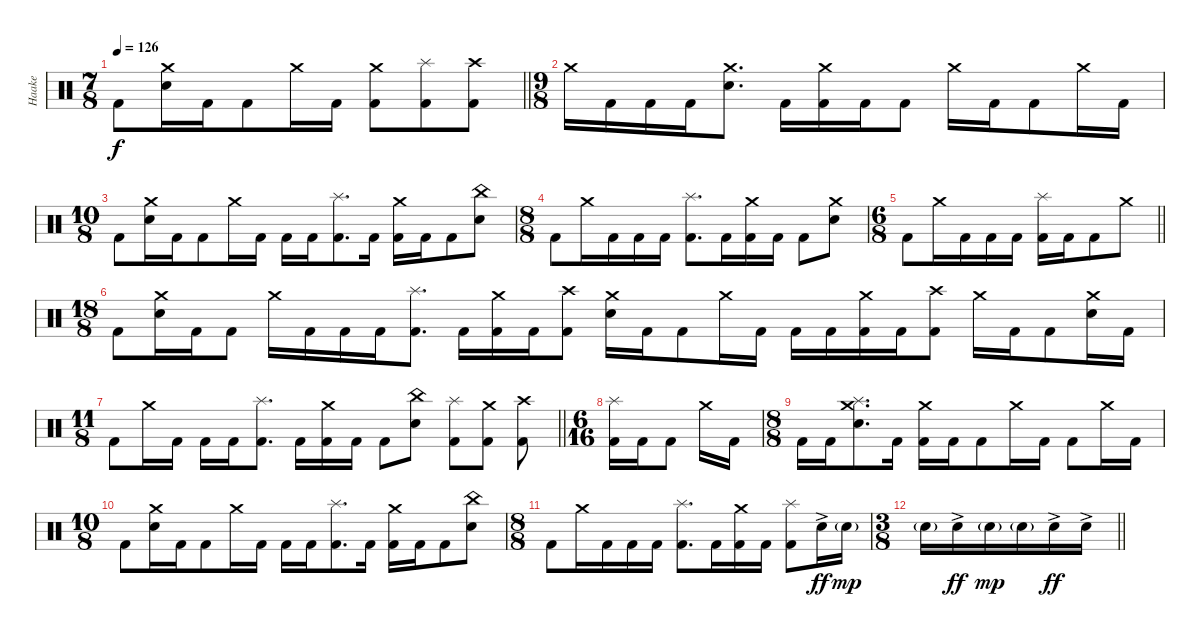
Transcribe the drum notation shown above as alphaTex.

\track ("Haake" "Haake") {instrument percussion}
\staff {score}
\articulation defaults
\ts (7 8)
\tempo 126
\clef neutral
\barLineRight lightlight
\ks c "Kick (hit) 2".8{dy f}
("Crash medium (hit)" "Electric Snare (hit)").16 "Kick (hit) 2".16 "Kick (hit) 2".8 "Crash medium (hit)".16 "Kick (hit) 2".16 ("Crash medium (hit)" "Kick (hit) 2").8 ("Splash (hit)" "Kick (hit) 2").8 ("Crash high (hit)" "Kick (hit) 2").8 |
\ts (9 8)
"Crash medium (hit)".16 "Kick (hit) 2".16 "Kick (hit) 2".16 "Kick (hit) 2".16 ("Crash medium (hit)" "Electric Snare (hit)").8{d} "Kick (hit) 2".16 ("Crash medium (hit)" "Kick (hit) 2").16 "Kick (hit) 2".16 "Kick (hit) 2".8 "Crash medium (hit)".16 "Kick (hit) 2".16 "Kick (hit) 2".8 "Crash medium (hit)".16 "Kick (hit) 2".16 |
\ts (10 8)
"Kick (hit) 2".8 ("Crash medium (hit)" "Electric Snare (hit)").16 "Kick (hit) 2".16 "Kick (hit) 2".8 "Crash medium (hit)".16 "Kick (hit) 2".16 "Kick (hit) 2".16 "Kick (hit) 2".16 ("Splash (hit)" "Kick (hit) 2").8{d} "Kick (hit) 2".16 ("Crash medium (hit)" "Kick (hit) 2").16 "Kick (hit) 2".16 "Kick (hit) 2".8 ("China (hit)" "Electric Snare (hit)").8 |
\ts (8 8)
"Kick (hit) 2".8 "Crash medium (hit)".16 "Kick (hit) 2".16 "Kick (hit) 2".16 "Kick (hit) 2".16 ("Splash (hit)" "Kick (hit) 2").8{d} "Kick (hit) 2".16 ("Crash medium (hit)" "Kick (hit) 2").16 "Kick (hit) 2".16 "Kick (hit) 2".8 ("Crash medium (hit)" "Electric Snare (hit)").8 |
\ts (6 8)
\barLineRight lightlight "Kick (hit) 2".8 "Crash medium (hit)".16 "Kick (hit) 2".16 "Kick (hit) 2".16 "Kick (hit) 2".16
("Splash (hit)" "Kick (hit) 2").16 "Kick (hit) 2".16 "Kick (hit) 2".8 "Crash medium (hit)".8 |
\ts (18 8)
"Kick (hit) 2".8 ("Crash medium (hit)" "Electric Snare (hit)").16 "Kick (hit) 2".16 "Kick (hit) 2".8 "Crash medium (hit)".16 "Kick (hit) 2".16 "Kick (hit) 2".16 "Kick (hit) 2".16 ("Splash (hit)" "Kick (hit) 2").8{d} "Kick (hit) 2".16 ("Crash medium (hit)" "Kick (hit) 2").16 "Kick (hit) 2".16 ("Crash high (hit)" "Kick (hit) 2").8 ("Crash medium (hit)" "Electric Snare (hit)").16 "Kick (hit) 2".16 "Kick (hit) 2".8 "Crash medium (hit)".16 "Kick (hit) 2".16 "Kick (hit) 2".16 "Kick (hit) 2".16 ("Crash medium (hit)" "Kick (hit) 2").16 "Kick (hit) 2".16 ("Crash high (hit)" "Kick (hit) 2").8 "Crash medium (hit)".16 "Kick (hit) 2".16 "Kick (hit) 2".8 ("Crash medium (hit)" "Electric Snare (hit)").16 "Kick (hit) 2".16 |
\ts (11 8)
\barLineRight lightlight "Kick (hit) 2".8 "Crash medium (hit)".16 "Kick (hit) 2".16 "Kick (hit) 2".16 "Kick (hit) 2".16
("Splash (hit)" "Kick (hit) 2").8{d} "Kick (hit) 2".16 ("Crash medium (hit)" "Kick (hit) 2").16 "Kick (hit) 2".16 "Kick (hit) 2".8 ("China (hit)" "Electric Snare (hit)").8 ("Splash (hit)" "Kick (hit) 2").8 ("Crash medium (hit)" "Kick (hit) 2").8 ("Crash high (hit)" "Kick (hit) 2").8 |
\ts (6 16)
("Splash (hit)" "Kick (hit) 2").16 "Kick (hit) 2".16 "Kick (hit) 2".8 "Crash medium (hit)".16 "Kick (hit) 2".16 |
\ts (8 8)
"Kick (hit) 2".16 "Kick (hit) 2".16 ("Crash medium (hit)" "Electric Snare (hit)" "Splash (hit)").8{d} "Kick (hit) 2".16 ("Crash medium (hit)" "Kick (hit) 2").16 "Kick (hit) 2".16 "Kick (hit) 2".8 "Crash medium (hit)".16 "Kick (hit) 2".16 "Kick (hit) 2".8 "Crash medium (hit)".16 "Kick (hit) 2".16 |
\ts (10 8)
"Kick (hit) 2".8 ("Crash medium (hit)" "Electric Snare (hit)").16 "Kick (hit) 2".16 "Kick (hit) 2".8 "Crash medium (hit)".16 "Kick (hit) 2".16 "Kick (hit) 2".16 "Kick (hit) 2".16 ("Splash (hit)" "Kick (hit) 2").8{d} "Kick (hit) 2".16 ("Crash medium (hit)" "Kick (hit) 2").16 "Kick (hit) 2".16 "Kick (hit) 2".8 ("China (hit)" "Electric Snare (hit)").8 |
\ts (8 8)
"Kick (hit) 2".8 "Crash medium (hit)".16 "Kick (hit) 2".16 "Kick (hit) 2".16 "Kick (hit) 2".16 ("Splash (hit)" "Kick (hit) 2").8{d} "Kick (hit) 2".16 ("Crash medium (hit)" "Kick (hit) 2").16 "Kick (hit) 2".16 ("Splash (hit)" "Kick (hit) 2").8 "Electric Snare (hit)"{ac}.16{dy ff} "Electric Snare (hit)"{g}.16{dy mp} |
\ts (3 8)
\barLineRight lightlight "Electric Snare (hit)"{g}.16 "Electric Snare (hit)"{ac}.16{dy ff} "Electric Snare (hit)"{g}.16{dy mp} "Electric Snare (hit)"{g}.16 "Electric Snare (hit)"{ac}.16{dy ff} "Electric Snare (hit)"{ac}.16
